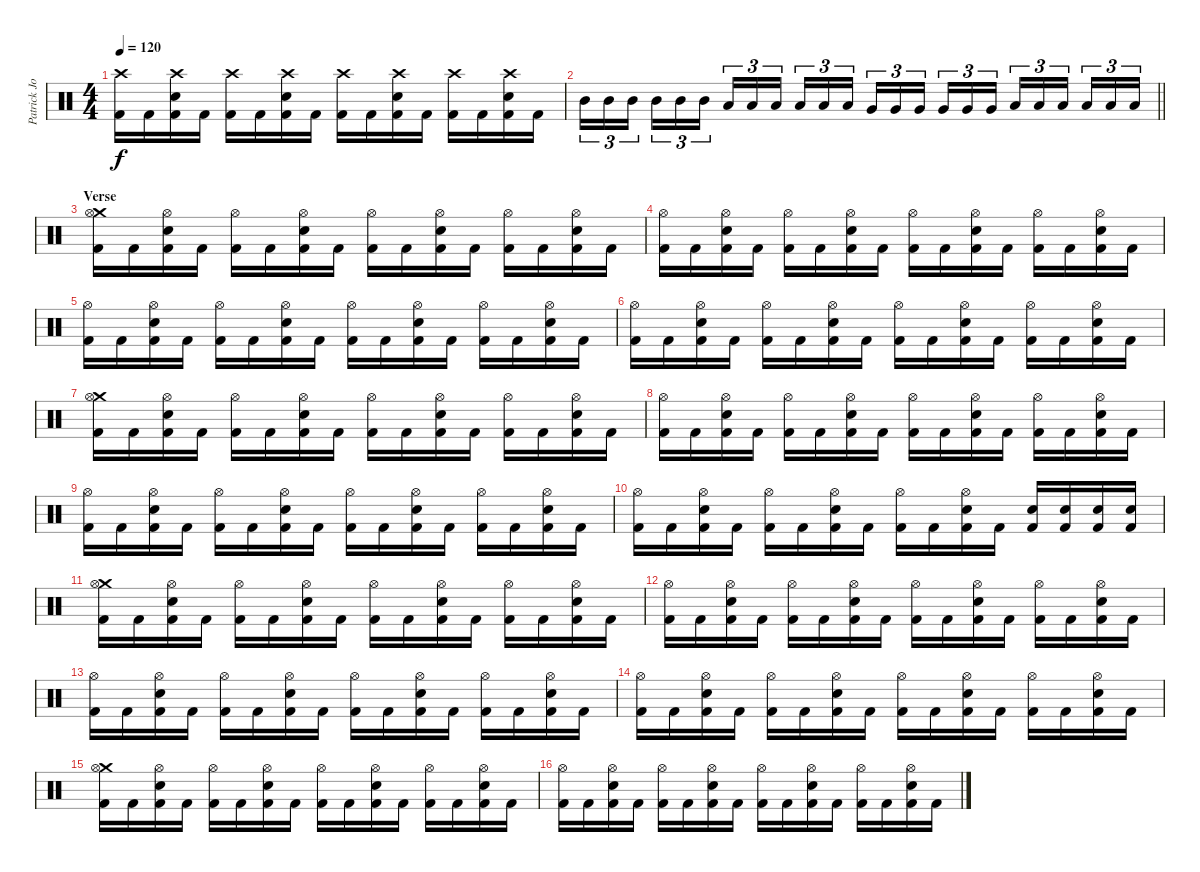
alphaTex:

\track ("Patrick Johansson" "Patrick Jo") {instrument percussion}
\staff {score}
\articulation defaults
\ts (4 4)
\tempo 120
\clef neutral
\ks c
("Crash high (hit)" "Kick (hit) 2").16{dy f} "Kick (hit) 2".16 ("Crash high (hit)" "Snare (hit) 2" "Kick (hit) 2").16 "Kick (hit) 2".16 ("Crash high (hit)" "Kick (hit) 2").16 "Kick (hit) 2".16 ("Crash high (hit)" "Snare (hit) 2" "Kick (hit) 2").16 "Kick (hit) 2".16 ("Crash high (hit)" "Kick (hit) 2").16 "Kick (hit) 2".16 ("Crash high (hit)" "Snare (hit) 2" "Kick (hit) 2").16 "Kick (hit) 2".16 ("Crash high (hit)" "Kick (hit) 2").16 "Kick (hit) 2".16 ("Crash high (hit)" "Snare (hit) 2" "Kick (hit) 2").16 "Kick (hit) 2".16 |
\barLineRight lightlight "Mid Tom (hit)".16{tu (3 2)} "Mid Tom (hit)".16{tu (3 2)} "Mid Tom (hit)".16{tu (3 2) beam splitsecondary} "Mid Tom (hit)".16{tu (3 2)} "Mid Tom (hit)".16{tu (3 2)} "Mid Tom (hit)".16{tu (3 2)} "Low Tom (hit)".16{tu (3 2)} "Low Tom (hit)".16{tu (3 2)} "Low Tom (hit)".16{tu (3 2) beam splitsecondary} "Low Tom (hit)".16{tu (3 2)} "Low Tom (hit)".16{tu (3 2)} "Low Tom (hit)".16{tu (3 2)} "Very Low Tom (hit)".16{tu (3 2)} "Very Low Tom (hit)".16{tu (3 2)} "Very Low Tom (hit)".16{tu (3 2) beam splitsecondary} "Very Low Tom (hit)".16{tu (3 2)} "Very Low Tom (hit)".16{tu (3 2)} "Very Low Tom (hit)".16{tu (3 2)} "Low Floor Tom (hit)".16{tu (3 2)} "Low Floor Tom (hit)".16{tu (3 2)} "Low Floor Tom (hit)".16{tu (3 2) beam splitsecondary} "Low Floor Tom (hit)".16{tu (3 2)} "Low Floor Tom (hit)".16{tu (3 2)} "Low Floor Tom (hit)".16{tu (3 2)}
|
\section ("" "Verse")
("Crash medium (hit)" "Hi-Hat (open)" "Kick (hit) 2").16 "Kick (hit) 2".16 ("Hi-Hat (open)" "Snare (hit) 2" "Kick (hit) 2").16 "Kick (hit) 2".16 ("Hi-Hat (open)" "Kick (hit) 2").16 "Kick (hit) 2".16 ("Hi-Hat (open)" "Snare (hit) 2" "Kick (hit) 2").16 "Kick (hit) 2".16 ("Hi-Hat (open)" "Kick (hit) 2").16 "Kick (hit) 2".16 ("Hi-Hat (open)" "Snare (hit) 2" "Kick (hit) 2").16 "Kick (hit) 2".16 ("Hi-Hat (open)" "Kick (hit) 2").16 "Kick (hit) 2".16 ("Hi-Hat (open)" "Snare (hit) 2" "Kick (hit) 2").16 "Kick (hit) 2".16 |
("Hi-Hat (open)" "Kick (hit) 2").16 "Kick (hit) 2".16 ("Hi-Hat (open)" "Snare (hit) 2" "Kick (hit) 2").16 "Kick (hit) 2".16 ("Hi-Hat (open)" "Kick (hit) 2").16 "Kick (hit) 2".16 ("Hi-Hat (open)" "Snare (hit) 2" "Kick (hit) 2").16 "Kick (hit) 2".16 ("Hi-Hat (open)" "Kick (hit) 2").16 "Kick (hit) 2".16 ("Hi-Hat (open)" "Snare (hit) 2" "Kick (hit) 2").16 "Kick (hit) 2".16 ("Hi-Hat (open)" "Kick (hit) 2").16 "Kick (hit) 2".16 ("Hi-Hat (open)" "Snare (hit) 2" "Kick (hit) 2").16 "Kick (hit) 2".16 |
("Hi-Hat (open)" "Kick (hit) 2").16 "Kick (hit) 2".16 ("Hi-Hat (open)" "Snare (hit) 2" "Kick (hit) 2").16 "Kick (hit) 2".16 ("Hi-Hat (open)" "Kick (hit) 2").16 "Kick (hit) 2".16 ("Hi-Hat (open)" "Snare (hit) 2" "Kick (hit) 2").16 "Kick (hit) 2".16 ("Hi-Hat (open)" "Kick (hit) 2").16 "Kick (hit) 2".16 ("Hi-Hat (open)" "Snare (hit) 2" "Kick (hit) 2").16 "Kick (hit) 2".16 ("Hi-Hat (open)" "Kick (hit) 2").16 "Kick (hit) 2".16 ("Hi-Hat (open)" "Snare (hit) 2" "Kick (hit) 2").16 "Kick (hit) 2".16 |
("Hi-Hat (open)" "Kick (hit) 2").16 "Kick (hit) 2".16 ("Hi-Hat (open)" "Snare (hit) 2" "Kick (hit) 2").16 "Kick (hit) 2".16 ("Hi-Hat (open)" "Kick (hit) 2").16 "Kick (hit) 2".16 ("Hi-Hat (open)" "Snare (hit) 2" "Kick (hit) 2").16 "Kick (hit) 2".16 ("Hi-Hat (open)" "Kick (hit) 2").16 "Kick (hit) 2".16 ("Hi-Hat (open)" "Snare (hit) 2" "Kick (hit) 2").16 "Kick (hit) 2".16 ("Hi-Hat (open)" "Kick (hit) 2").16 "Kick (hit) 2".16 ("Hi-Hat (open)" "Snare (hit) 2" "Kick (hit) 2").16 "Kick (hit) 2".16 |
("Crash medium (hit)" "Hi-Hat (open)" "Kick (hit) 2").16 "Kick (hit) 2".16 ("Hi-Hat (open)" "Snare (hit) 2" "Kick (hit) 2").16 "Kick (hit) 2".16 ("Hi-Hat (open)" "Kick (hit) 2").16 "Kick (hit) 2".16 ("Hi-Hat (open)" "Snare (hit) 2" "Kick (hit) 2").16 "Kick (hit) 2".16 ("Hi-Hat (open)" "Kick (hit) 2").16 "Kick (hit) 2".16 ("Hi-Hat (open)" "Snare (hit) 2" "Kick (hit) 2").16 "Kick (hit) 2".16 ("Hi-Hat (open)" "Kick (hit) 2").16 "Kick (hit) 2".16 ("Hi-Hat (open)" "Snare (hit) 2" "Kick (hit) 2").16 "Kick (hit) 2".16 |
("Hi-Hat (open)" "Kick (hit) 2").16 "Kick (hit) 2".16 ("Hi-Hat (open)" "Snare (hit) 2" "Kick (hit) 2").16 "Kick (hit) 2".16 ("Hi-Hat (open)" "Kick (hit) 2").16 "Kick (hit) 2".16 ("Hi-Hat (open)" "Snare (hit) 2" "Kick (hit) 2").16 "Kick (hit) 2".16 ("Hi-Hat (open)" "Kick (hit) 2").16 "Kick (hit) 2".16 ("Hi-Hat (open)" "Snare (hit) 2" "Kick (hit) 2").16 "Kick (hit) 2".16 ("Hi-Hat (open)" "Kick (hit) 2").16 "Kick (hit) 2".16 ("Hi-Hat (open)" "Snare (hit) 2" "Kick (hit) 2").16 "Kick (hit) 2".16 |
("Hi-Hat (open)" "Kick (hit) 2").16 "Kick (hit) 2".16 ("Hi-Hat (open)" "Snare (hit) 2" "Kick (hit) 2").16 "Kick (hit) 2".16 ("Hi-Hat (open)" "Kick (hit) 2").16 "Kick (hit) 2".16 ("Hi-Hat (open)" "Snare (hit) 2" "Kick (hit) 2").16 "Kick (hit) 2".16 ("Hi-Hat (open)" "Kick (hit) 2").16 "Kick (hit) 2".16 ("Hi-Hat (open)" "Snare (hit) 2" "Kick (hit) 2").16 "Kick (hit) 2".16 ("Hi-Hat (open)" "Kick (hit) 2").16 "Kick (hit) 2".16 ("Hi-Hat (open)" "Snare (hit) 2" "Kick (hit) 2").16 "Kick (hit) 2".16 |
("Hi-Hat (open)" "Kick (hit) 2").16 "Kick (hit) 2".16 ("Hi-Hat (open)" "Snare (hit) 2" "Kick (hit) 2").16 "Kick (hit) 2".16 ("Hi-Hat (open)" "Kick (hit) 2").16 "Kick (hit) 2".16 ("Hi-Hat (open)" "Snare (hit) 2" "Kick (hit) 2").16 "Kick (hit) 2".16 ("Hi-Hat (open)" "Kick (hit) 2").16 "Kick (hit) 2".16 ("Hi-Hat (open)" "Snare (hit) 2" "Kick (hit) 2").16 "Kick (hit) 2".16 ("Snare (hit) 2" "Kick (hit) 2").16 ("Snare (hit) 2" "Kick (hit) 2").16 ("Snare (hit) 2" "Kick (hit) 2").16 ("Snare (hit) 2" "Kick (hit) 2").16 |
("Crash medium (hit)" "Hi-Hat (open)" "Kick (hit) 2").16 "Kick (hit) 2".16 ("Hi-Hat (open)" "Snare (hit) 2" "Kick (hit) 2").16 "Kick (hit) 2".16 ("Hi-Hat (open)" "Kick (hit) 2").16 "Kick (hit) 2".16 ("Hi-Hat (open)" "Snare (hit) 2" "Kick (hit) 2").16 "Kick (hit) 2".16 ("Hi-Hat (open)" "Kick (hit) 2").16 "Kick (hit) 2".16 ("Hi-Hat (open)" "Snare (hit) 2" "Kick (hit) 2").16 "Kick (hit) 2".16 ("Hi-Hat (open)" "Kick (hit) 2").16 "Kick (hit) 2".16 ("Hi-Hat (open)" "Snare (hit) 2" "Kick (hit) 2").16 "Kick (hit) 2".16 |
("Hi-Hat (open)" "Kick (hit) 2").16 "Kick (hit) 2".16 ("Hi-Hat (open)" "Snare (hit) 2" "Kick (hit) 2").16 "Kick (hit) 2".16 ("Hi-Hat (open)" "Kick (hit) 2").16 "Kick (hit) 2".16 ("Hi-Hat (open)" "Snare (hit) 2" "Kick (hit) 2").16 "Kick (hit) 2".16 ("Hi-Hat (open)" "Kick (hit) 2").16 "Kick (hit) 2".16 ("Hi-Hat (open)" "Snare (hit) 2" "Kick (hit) 2").16 "Kick (hit) 2".16 ("Hi-Hat (open)" "Kick (hit) 2").16 "Kick (hit) 2".16 ("Hi-Hat (open)" "Snare (hit) 2" "Kick (hit) 2").16 "Kick (hit) 2".16 |
("Hi-Hat (open)" "Kick (hit) 2").16 "Kick (hit) 2".16 ("Hi-Hat (open)" "Snare (hit) 2" "Kick (hit) 2").16 "Kick (hit) 2".16 ("Hi-Hat (open)" "Kick (hit) 2").16 "Kick (hit) 2".16 ("Hi-Hat (open)" "Snare (hit) 2" "Kick (hit) 2").16 "Kick (hit) 2".16 ("Hi-Hat (open)" "Kick (hit) 2").16 "Kick (hit) 2".16 ("Hi-Hat (open)" "Snare (hit) 2" "Kick (hit) 2").16 "Kick (hit) 2".16 ("Hi-Hat (open)" "Kick (hit) 2").16 "Kick (hit) 2".16 ("Hi-Hat (open)" "Snare (hit) 2" "Kick (hit) 2").16 "Kick (hit) 2".16 |
("Hi-Hat (open)" "Kick (hit) 2").16 "Kick (hit) 2".16 ("Hi-Hat (open)" "Snare (hit) 2" "Kick (hit) 2").16 "Kick (hit) 2".16 ("Hi-Hat (open)" "Kick (hit) 2").16 "Kick (hit) 2".16 ("Hi-Hat (open)" "Snare (hit) 2" "Kick (hit) 2").16 "Kick (hit) 2".16 ("Hi-Hat (open)" "Kick (hit) 2").16 "Kick (hit) 2".16 ("Hi-Hat (open)" "Snare (hit) 2" "Kick (hit) 2").16 "Kick (hit) 2".16 ("Hi-Hat (open)" "Kick (hit) 2").16 "Kick (hit) 2".16 ("Hi-Hat (open)" "Snare (hit) 2" "Kick (hit) 2").16 "Kick (hit) 2".16 |
("Crash medium (hit)" "Hi-Hat (open)" "Kick (hit) 2").16 "Kick (hit) 2".16 ("Hi-Hat (open)" "Snare (hit) 2" "Kick (hit) 2").16 "Kick (hit) 2".16 ("Hi-Hat (open)" "Kick (hit) 2").16 "Kick (hit) 2".16 ("Hi-Hat (open)" "Snare (hit) 2" "Kick (hit) 2").16 "Kick (hit) 2".16 ("Hi-Hat (open)" "Kick (hit) 2").16 "Kick (hit) 2".16 ("Hi-Hat (open)" "Snare (hit) 2" "Kick (hit) 2").16 "Kick (hit) 2".16 ("Hi-Hat (open)" "Kick (hit) 2").16 "Kick (hit) 2".16 ("Hi-Hat (open)" "Snare (hit) 2" "Kick (hit) 2").16 "Kick (hit) 2".16 |
("Hi-Hat (open)" "Kick (hit) 2").16 "Kick (hit) 2".16 ("Hi-Hat (open)" "Snare (hit) 2" "Kick (hit) 2").16 "Kick (hit) 2".16 ("Hi-Hat (open)" "Kick (hit) 2").16 "Kick (hit) 2".16 ("Hi-Hat (open)" "Snare (hit) 2" "Kick (hit) 2").16 "Kick (hit) 2".16 ("Hi-Hat (open)" "Kick (hit) 2").16 "Kick (hit) 2".16 ("Hi-Hat (open)" "Snare (hit) 2" "Kick (hit) 2").16 "Kick (hit) 2".16 ("Hi-Hat (open)" "Kick (hit) 2").16 "Kick (hit) 2".16 ("Hi-Hat (open)" "Snare (hit) 2" "Kick (hit) 2").16 "Kick (hit) 2".16
